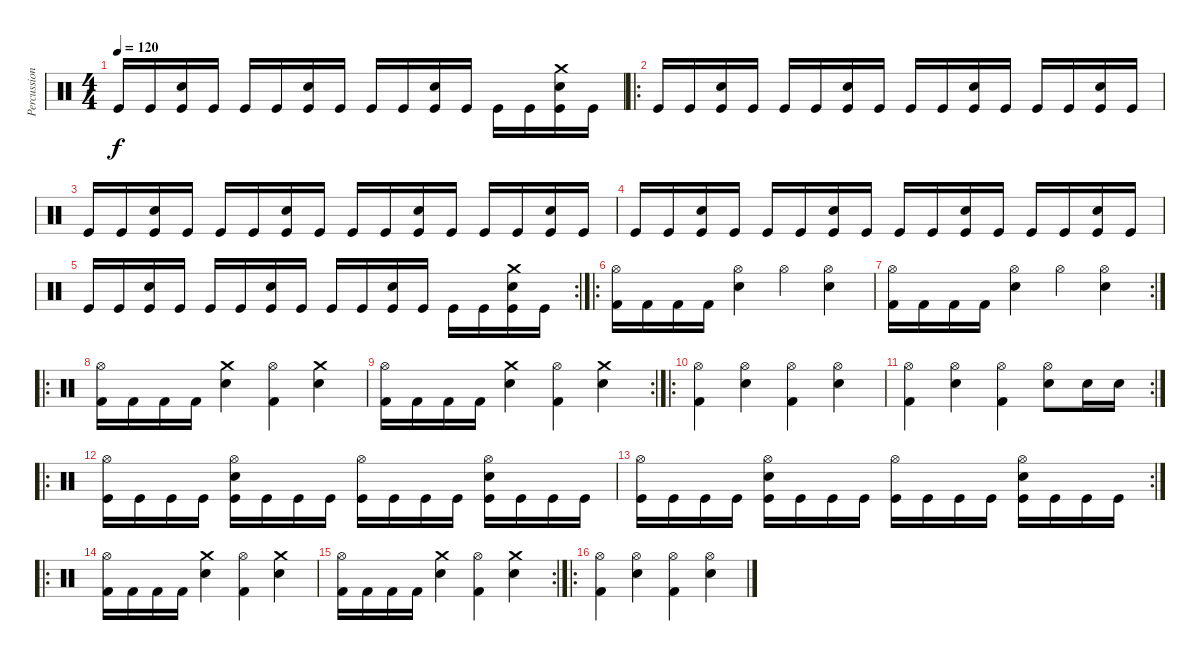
\track ("Percussions" "Percussion") {instrument percussion}
\staff {score}
\articulation defaults
\ts (4 4)
\tempo 120
\clef neutral
\ks c "Kick (hit)".16{dy f} "Kick (hit)".16
("Kick (hit)" "Electric Snare (hit)").16 "Kick (hit)".16 "Kick (hit)".16 "Kick (hit)".16 ("Kick (hit)" "Electric Snare (hit)").16 "Kick (hit)".16 "Kick (hit)".16 "Kick (hit)".16 ("Kick (hit)" "Electric Snare (hit)").16 "Kick (hit)".16 "Kick (hit)".16 "Kick (hit)".16 ("Kick (hit)" "Crash medium (hit)" "Electric Snare (hit)").16 "Kick (hit)".16 |
\ro "Kick (hit)".16 "Kick (hit)".16
("Kick (hit)" "Electric Snare (hit)").16 "Kick (hit)".16 "Kick (hit)".16 "Kick (hit)".16 ("Kick (hit)" "Electric Snare (hit)").16 "Kick (hit)".16 "Kick (hit)".16 "Kick (hit)".16 ("Kick (hit)" "Electric Snare (hit)").16 "Kick (hit)".16 "Kick (hit)".16 "Kick (hit)".16 ("Kick (hit)" "Electric Snare (hit)").16 "Kick (hit)".16 |
"Kick (hit)".16 "Kick (hit)".16 ("Kick (hit)" "Electric Snare (hit)").16 "Kick (hit)".16 "Kick (hit)".16 "Kick (hit)".16 ("Kick (hit)" "Electric Snare (hit)").16 "Kick (hit)".16 "Kick (hit)".16 "Kick (hit)".16 ("Kick (hit)" "Electric Snare (hit)").16 "Kick (hit)".16 "Kick (hit)".16 "Kick (hit)".16 ("Kick (hit)" "Electric Snare (hit)").16 "Kick (hit)".16 |
"Kick (hit)".16 "Kick (hit)".16 ("Kick (hit)" "Electric Snare (hit)").16 "Kick (hit)".16 "Kick (hit)".16 "Kick (hit)".16 ("Kick (hit)" "Electric Snare (hit)").16 "Kick (hit)".16 "Kick (hit)".16 "Kick (hit)".16 ("Kick (hit)" "Electric Snare (hit)").16 "Kick (hit)".16 "Kick (hit)".16 "Kick (hit)".16 ("Kick (hit)" "Electric Snare (hit)").16 "Kick (hit)".16 |
\rc 2 "Kick (hit)".16 "Kick (hit)".16
("Kick (hit)" "Electric Snare (hit)").16 "Kick (hit)".16 "Kick (hit)".16 "Kick (hit)".16 ("Kick (hit)" "Electric Snare (hit)").16 "Kick (hit)".16 "Kick (hit)".16 "Kick (hit)".16 ("Kick (hit)" "Electric Snare (hit)").16 "Kick (hit)".16 "Kick (hit)".16 "Kick (hit)".16 ("Kick (hit)" "Crash medium (hit)" "Electric Snare (hit)").16 "Kick (hit)".16 |
\ro
("Kick (hit) 2" "Hi-Hat (open)").16 "Kick (hit) 2".16 "Kick (hit) 2".16 "Kick (hit) 2".16 ("Electric Snare (hit)" "Hi-Hat (open)").4 "Hi-Hat (open)".4 ("Electric Snare (hit)" "Hi-Hat (open)").4 |
\rc 2
("Kick (hit) 2" "Hi-Hat (open)").16 "Kick (hit) 2".16 "Kick (hit) 2".16 "Kick (hit) 2".16 ("Electric Snare (hit)" "Hi-Hat (open)").4 "Hi-Hat (open)".4 ("Electric Snare (hit)" "Hi-Hat (open)").4 |
\ro
("Kick (hit) 2" "Hi-Hat (open)").16 "Kick (hit) 2".16 "Kick (hit) 2".16 "Kick (hit) 2".16 ("Electric Snare (hit)" "Crash medium (hit)").4 ("Kick (hit) 2" "Hi-Hat (open)").4 ("Electric Snare (hit)" "Crash medium (hit)").4 |
\rc 2
("Kick (hit) 2" "Hi-Hat (open)").16 "Kick (hit) 2".16 "Kick (hit) 2".16 "Kick (hit) 2".16 ("Electric Snare (hit)" "Crash medium (hit)").4 ("Kick (hit) 2" "Hi-Hat (open)").4 ("Electric Snare (hit)" "Crash medium (hit)").4 |
\ro
("Kick (hit) 2" "Hi-Hat (open)").4 ("Electric Snare (hit)" "Hi-Hat (open)").4 ("Kick (hit) 2" "Hi-Hat (open)").4 ("Electric Snare (hit)" "Hi-Hat (open)").4 |
\rc 2
("Kick (hit) 2" "Hi-Hat (open)").4 ("Electric Snare (hit)" "Hi-Hat (open)").4 ("Kick (hit) 2" "Hi-Hat (open)").4 ("Electric Snare (hit)" "Hi-Hat (open)").8 "Electric Snare (hit)".16 "Electric Snare (hit)".16 |
\ro
("Kick (hit)" "Hi-Hat (open)").16 "Kick (hit)".16 "Kick (hit)".16 "Kick (hit)".16 ("Kick (hit)" "Electric Snare (hit)" "Hi-Hat (open)").16 "Kick (hit)".16 "Kick (hit)".16 "Kick (hit)".16 ("Kick (hit)" "Hi-Hat (open)").16 "Kick (hit)".16 "Kick (hit)".16 "Kick (hit)".16 ("Kick (hit)" "Electric Snare (hit)" "Hi-Hat (open)").16 "Kick (hit)".16 "Kick (hit)".16 "Kick (hit)".16 |
\rc 2
("Kick (hit)" "Hi-Hat (open)").16 "Kick (hit)".16 "Kick (hit)".16 "Kick (hit)".16 ("Kick (hit)" "Electric Snare (hit)" "Hi-Hat (open)").16 "Kick (hit)".16 "Kick (hit)".16 "Kick (hit)".16 ("Kick (hit)" "Hi-Hat (open)").16 "Kick (hit)".16 "Kick (hit)".16 "Kick (hit)".16 ("Kick (hit)" "Electric Snare (hit)" "Hi-Hat (open)").16 "Kick (hit)".16 "Kick (hit)".16 "Kick (hit)".16 |
\ro
("Kick (hit) 2" "Hi-Hat (open)").16 "Kick (hit) 2".16 "Kick (hit) 2".16 "Kick (hit) 2".16 ("Electric Snare (hit)" "Crash medium (hit)").4 ("Kick (hit) 2" "Hi-Hat (open)").4 ("Electric Snare (hit)" "Crash medium (hit)").4 |
\rc 2
("Kick (hit) 2" "Hi-Hat (open)").16 "Kick (hit) 2".16 "Kick (hit) 2".16 "Kick (hit) 2".16 ("Electric Snare (hit)" "Crash medium (hit)").4 ("Kick (hit) 2" "Hi-Hat (open)").4 ("Electric Snare (hit)" "Crash medium (hit)").4 |
\ro
("Kick (hit) 2" "Hi-Hat (open)").4 ("Electric Snare (hit)" "Hi-Hat (open)").4 ("Kick (hit) 2" "Hi-Hat (open)").4 ("Electric Snare (hit)" "Hi-Hat (open)").4
